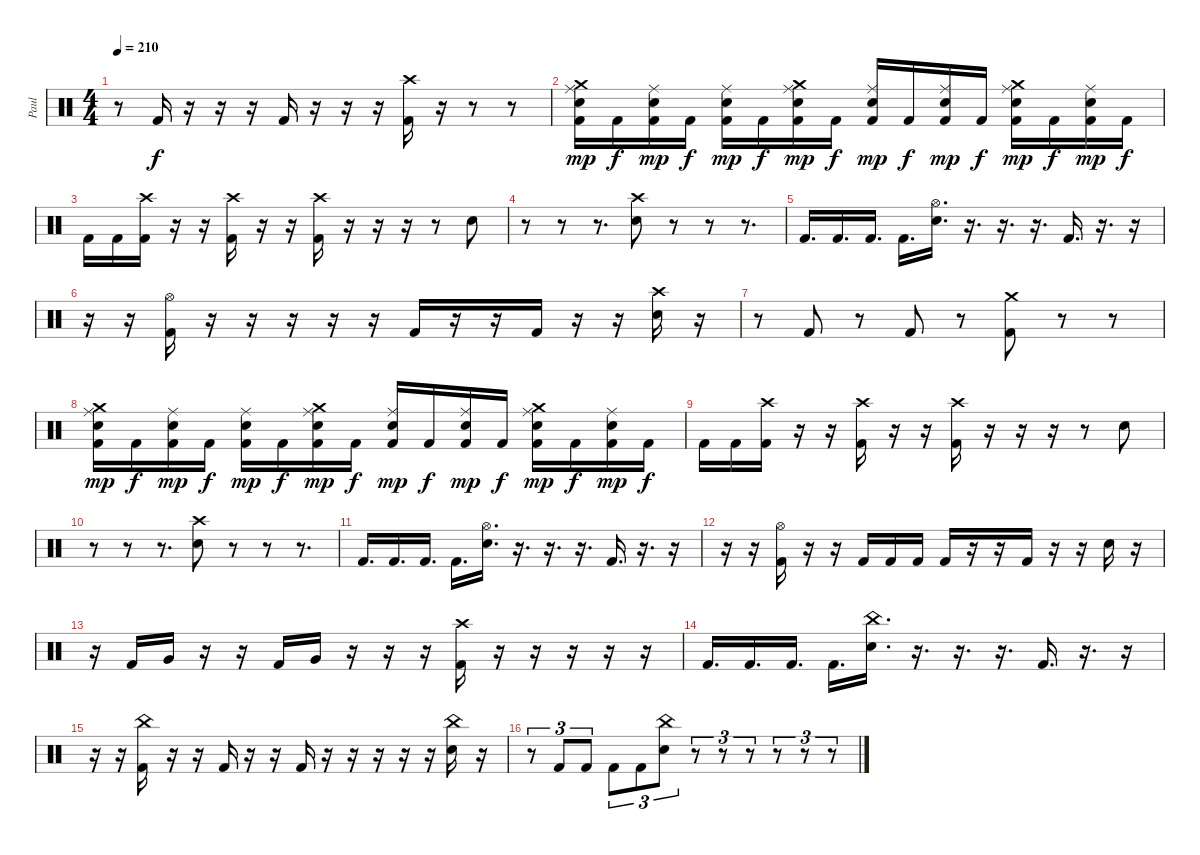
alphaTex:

\track ("Paul " "Paul ") {instrument percussion}
\staff {score}
\articulation defaults
\ts (4 4)
\tempo 210
\clef neutral
\ks c
r.8{dy f} "Kick (hit) 2".16 r.16 r.16 r.16 "Kick (hit) 2".16 r.16 r.16 r.16 ("Kick (hit) 2" "Crash high (hit)").16 r.16 r.8 r.8 |
("Kick (hit) 2" "Ride (middle)" "Electric Snare (hit)" "Crash medium (hit)").16{dy mp} "Kick (hit) 2".16{dy f} ("Kick (hit) 2" "Ride (middle)" "Electric Snare (hit)").16{dy mp} "Kick (hit) 2".16{dy f} ("Kick (hit) 2" "Ride (middle)" "Electric Snare (hit)").16{dy mp} "Kick (hit) 2".16{dy f} ("Kick (hit) 2" "Ride (middle)" "Electric Snare (hit)" "Crash medium (hit)").16{dy mp} "Kick (hit) 2".16{dy f} ("Kick (hit) 2" "Ride (middle)" "Electric Snare (hit)").16{dy mp} "Kick (hit) 2".16{dy f} ("Kick (hit) 2" "Ride (middle)" "Electric Snare (hit)").16{dy mp} "Kick (hit) 2".16{dy f} ("Kick (hit) 2" "Ride (middle)" "Electric Snare (hit)" "Crash medium (hit)").16{dy mp} "Kick (hit) 2".16{dy f} ("Kick (hit) 2" "Ride (middle)" "Electric Snare (hit)").16{dy mp} "Kick (hit) 2".16{dy f} |
"Kick (hit) 2".16 "Kick (hit) 2".16 ("Kick (hit) 2" "Crash high (hit)").16 r.16 r.16 ("Kick (hit) 2" "Crash high (hit)").16 r.16 r.16 ("Kick (hit) 2" "Crash high (hit)").16 r.16 r.16 r.16 r.8 "Electric Snare (hit)".8 |
r.8 r.8 r.8{d} ("Electric Snare (hit)" "Crash high (hit)").8 r.8 r.8 r.8{d} |
"Kick (hit) 2".16{d} "Kick (hit) 2".16{d} "Kick (hit) 2".16{d} "Kick (hit) 2".16{d} ("Electric Snare (hit)" "Hi-Hat (open)").16{d} r.16{d} r.16{d} r.16{d} "Kick (hit) 2".16{d} r.16{d} r.16 |
r.16 r.16 ("Kick (hit) 2" "Hi-Hat (open)").16 r.16 r.16 r.16 r.16 r.16 "Kick (hit) 2".16 r.16 r.16 "Kick (hit) 2".16 r.16 r.16 ("Electric Snare (hit)" "Crash high (hit)").16 r.16 |
r.8 "Kick (hit) 2".8 r.8 "Kick (hit) 2".8 r.8 ("Kick (hit) 2" "Crash medium (hit)").8 r.8 r.8 |
("Kick (hit) 2" "Ride (middle)" "Electric Snare (hit)" "Crash medium (hit)").16{dy mp} "Kick (hit) 2".16{dy f} ("Kick (hit) 2" "Ride (middle)" "Electric Snare (hit)").16{dy mp} "Kick (hit) 2".16{dy f} ("Kick (hit) 2" "Ride (middle)" "Electric Snare (hit)").16{dy mp} "Kick (hit) 2".16{dy f} ("Kick (hit) 2" "Ride (middle)" "Electric Snare (hit)" "Crash medium (hit)").16{dy mp} "Kick (hit) 2".16{dy f} ("Kick (hit) 2" "Ride (middle)" "Electric Snare (hit)").16{dy mp} "Kick (hit) 2".16{dy f} ("Kick (hit) 2" "Ride (middle)" "Electric Snare (hit)").16{dy mp} "Kick (hit) 2".16{dy f} ("Kick (hit) 2" "Ride (middle)" "Electric Snare (hit)" "Crash medium (hit)").16{dy mp} "Kick (hit) 2".16{dy f} ("Kick (hit) 2" "Ride (middle)" "Electric Snare (hit)").16{dy mp} "Kick (hit) 2".16{dy f} |
"Kick (hit) 2".16 "Kick (hit) 2".16 ("Kick (hit) 2" "Crash high (hit)").16 r.16 r.16 ("Kick (hit) 2" "Crash high (hit)").16 r.16 r.16 ("Kick (hit) 2" "Crash high (hit)").16 r.16 r.16 r.16 r.8 "Electric Snare (hit)".8 |
r.8 r.8 r.8{d} ("Electric Snare (hit)" "Crash high (hit)").8 r.8 r.8 r.8{d} |
"Kick (hit) 2".16{d} "Kick (hit) 2".16{d} "Kick (hit) 2".16{d} "Kick (hit) 2".16{d} ("Electric Snare (hit)" "Hi-Hat (open)").16{d} r.16{d} r.16{d} r.16{d} "Kick (hit) 2".16{d} r.16{d} r.16 |
r.16 r.16 ("Kick (hit) 2" "Hi-Hat (open)").16 r.16 r.16 "Kick (hit) 2".16 "Kick (hit) 2".16 "Kick (hit) 2".16 "Kick (hit) 2".16 r.16 r.16 "Kick (hit) 2".16 r.16 r.16 "Electric Snare (hit)".16 r.16 |
r.16 "Kick (hit) 2".16 "Very Low Tom (hit)".16 r.16 r.16 "Kick (hit) 2".16 "Very Low Tom (hit)".16 r.16 r.16 r.16 ("Kick (hit) 2" "Crash high (hit)").16 r.16 r.16 r.16 r.16 r.16 |
"Kick (hit) 2".16{d} "Kick (hit) 2".16{d} "Kick (hit) 2".16{d} "Kick (hit) 2".16{d} ("Electric Snare (hit)" "China (hit)").16{d} r.16{d} r.16{d} r.16{d} "Kick (hit) 2".16{d} r.16{d} r.16 |
r.16 r.16 ("Kick (hit) 2" "China (hit)").16 r.16 r.16 "Kick (hit) 2".16 r.16 r.16 "Kick (hit) 2".16 r.16 r.16 r.16 r.16 r.16 ("Electric Snare (hit)" "China (hit)").16 r.16 |
r.8{tu (3 2)} "Kick (hit) 2".8{tu (3 2)} "Kick (hit) 2".8{tu (3 2)} "Kick (hit) 2".8{tu (3 2)} "Kick (hit) 2".8{tu (3 2)} ("Electric Snare (hit)" "China (hit)").8{tu (3 2)} r.8{tu (3 2)} r.8{tu (3 2)} r.8{tu (3 2)} r.8{tu (3 2)} r.8{tu (3 2)} r.8{tu (3 2)}
